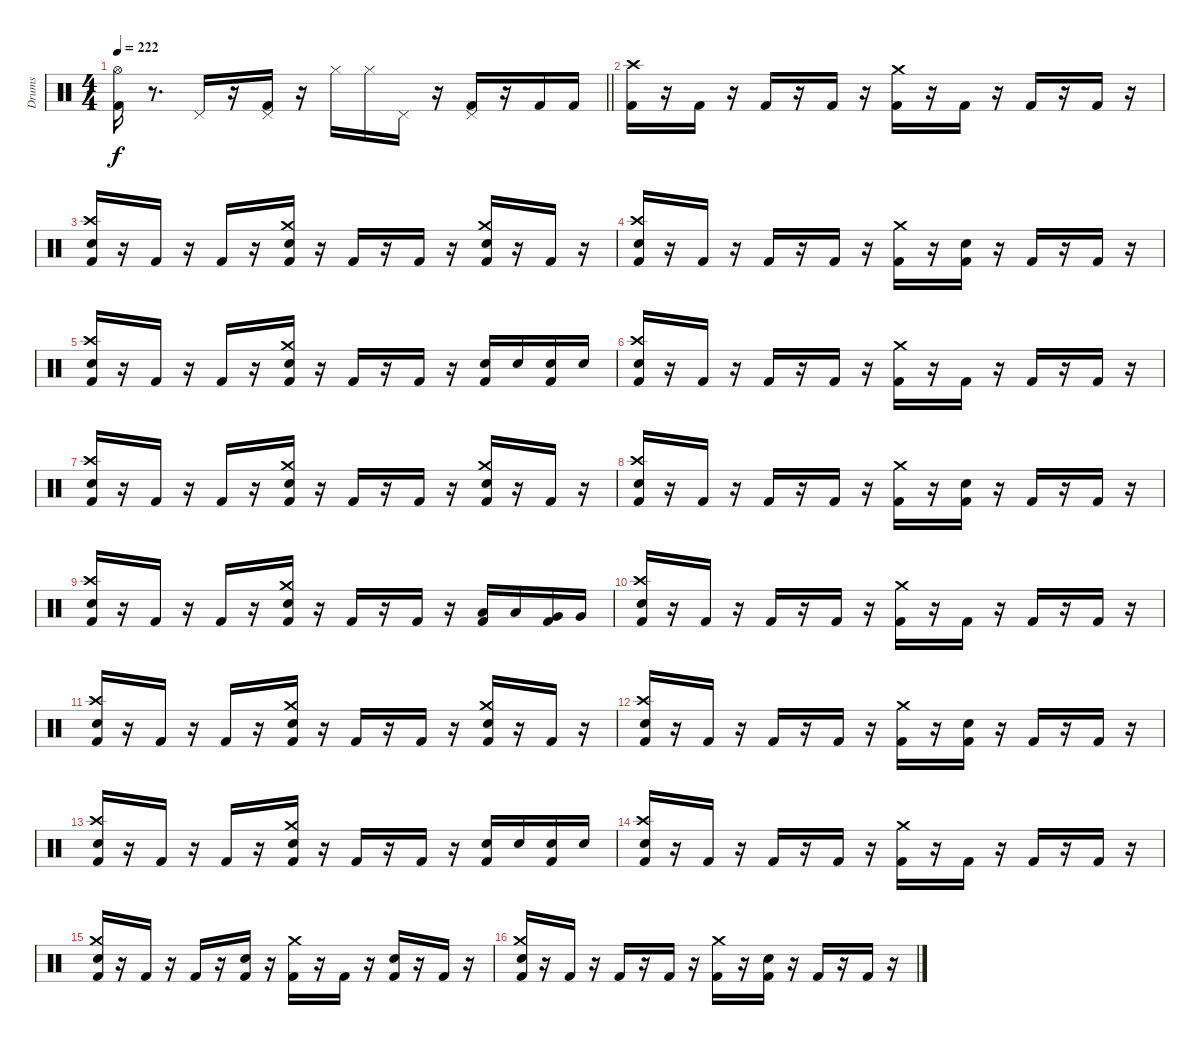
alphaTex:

\track ("Drums" "Drums") {instrument percussion}
\staff {score}
\articulation defaults
\ts (4 4)
\tempo 222
\clef neutral
\barLineRight lightlight
\ks c
("Kick (hit) 2" "Hi-Hat (open)").16{dy f} r.8{d} "Pedal Hi-Hat (hit)".16 r.16 ("Kick (hit) 2" "Pedal Hi-Hat (hit)").16 r.16 "Hi-Hat (closed)".16 "Hi-Hat (closed)".16 "Pedal Hi-Hat (hit)".16 r.16 ("Kick (hit) 2" "Pedal Hi-Hat (hit)").16 r.16 "Kick (hit) 2".16 "Kick (hit) 2".16 |
\section ("" " ")
("Kick (hit) 2" "Crash high (hit)").16 r.16 "Kick (hit) 2".16 r.16 "Kick (hit) 2".16 r.16 "Kick (hit) 2".16 r.16 ("Kick (hit) 2" "Crash medium (hit)").16 r.16 "Kick (hit) 2".16 r.16 "Kick (hit) 2".16 r.16 "Kick (hit) 2".16 r.16 |
("Kick (hit) 2" "Snare (hit) 2" "Crash high (hit)").16 r.16 "Kick (hit) 2".16 r.16 "Kick (hit) 2".16 r.16 ("Kick (hit) 2" "Snare (hit) 2" "Crash medium (hit)").16 r.16 "Kick (hit) 2".16 r.16 "Kick (hit) 2".16 r.16 ("Kick (hit) 2" "Snare (hit) 2" "Crash medium (hit)").16 r.16 "Kick (hit) 2".16 r.16 |
("Kick (hit) 2" "Snare (hit) 2" "Crash high (hit)").16 r.16 "Kick (hit) 2".16 r.16 "Kick (hit) 2".16 r.16 "Kick (hit) 2".16 r.16 ("Kick (hit) 2" "Crash medium (hit)").16 r.16 ("Kick (hit) 2" "Snare (hit) 2").16 r.16 "Kick (hit) 2".16 r.16 "Kick (hit) 2".16 r.16 |
("Kick (hit) 2" "Snare (hit) 2" "Crash high (hit)").16 r.16 "Kick (hit) 2".16 r.16 "Kick (hit) 2".16 r.16 ("Kick (hit) 2" "Snare (hit) 2" "Crash medium (hit)").16 r.16 "Kick (hit) 2".16 r.16 "Kick (hit) 2".16 r.16 ("Kick (hit) 2" "Snare (hit) 2").16 "Snare (hit) 2".16 ("Kick (hit) 2" "Snare (hit) 2").16 "Snare (hit) 2".16 |
("Kick (hit) 2" "Snare (hit) 2" "Crash high (hit)").16 r.16 "Kick (hit) 2".16 r.16 "Kick (hit) 2".16 r.16 "Kick (hit) 2".16 r.16 ("Kick (hit) 2" "Crash medium (hit)").16 r.16 "Kick (hit) 2".16 r.16 "Kick (hit) 2".16 r.16 "Kick (hit) 2".16 r.16 |
("Kick (hit) 2" "Snare (hit) 2" "Crash high (hit)").16 r.16 "Kick (hit) 2".16 r.16 "Kick (hit) 2".16 r.16 ("Kick (hit) 2" "Snare (hit) 2" "Crash medium (hit)").16 r.16 "Kick (hit) 2".16 r.16 "Kick (hit) 2".16 r.16 ("Kick (hit) 2" "Snare (hit) 2" "Crash medium (hit)").16 r.16 "Kick (hit) 2".16 r.16 |
("Kick (hit) 2" "Snare (hit) 2" "Crash high (hit)").16 r.16 "Kick (hit) 2".16 r.16 "Kick (hit) 2".16 r.16 "Kick (hit) 2".16 r.16 ("Kick (hit) 2" "Crash medium (hit)").16 r.16 ("Kick (hit) 2" "Snare (hit) 2").16 r.16 "Kick (hit) 2".16 r.16 "Kick (hit) 2".16 r.16 |
("Kick (hit) 2" "Snare (hit) 2" "Crash high (hit)").16 r.16 "Kick (hit) 2".16 r.16 "Kick (hit) 2".16 r.16 ("Kick (hit) 2" "Snare (hit) 2" "Crash medium (hit)").16 r.16 "Kick (hit) 2".16 r.16 "Kick (hit) 2".16 r.16 ("Kick (hit) 2" "Low Tom (hit)").16 "Low Tom (hit)".16 ("Kick (hit) 2" "Very Low Tom (hit)").16 "Very Low Tom (hit)".16 |
("Kick (hit) 2" "Snare (hit) 2" "Crash high (hit)").16 r.16 "Kick (hit) 2".16 r.16 "Kick (hit) 2".16 r.16 "Kick (hit) 2".16 r.16 ("Kick (hit) 2" "Crash medium (hit)").16 r.16 "Kick (hit) 2".16 r.16 "Kick (hit) 2".16 r.16 "Kick (hit) 2".16 r.16 |
("Kick (hit) 2" "Snare (hit) 2" "Crash high (hit)").16 r.16 "Kick (hit) 2".16 r.16 "Kick (hit) 2".16 r.16 ("Kick (hit) 2" "Snare (hit) 2" "Crash medium (hit)").16 r.16 "Kick (hit) 2".16 r.16 "Kick (hit) 2".16 r.16 ("Kick (hit) 2" "Snare (hit) 2" "Crash medium (hit)").16 r.16 "Kick (hit) 2".16 r.16 |
("Kick (hit) 2" "Snare (hit) 2" "Crash high (hit)").16 r.16 "Kick (hit) 2".16 r.16 "Kick (hit) 2".16 r.16 "Kick (hit) 2".16 r.16 ("Kick (hit) 2" "Crash medium (hit)").16 r.16 ("Kick (hit) 2" "Snare (hit) 2").16 r.16 "Kick (hit) 2".16 r.16 "Kick (hit) 2".16 r.16 |
("Kick (hit) 2" "Snare (hit) 2" "Crash high (hit)").16 r.16 "Kick (hit) 2".16 r.16 "Kick (hit) 2".16 r.16 ("Kick (hit) 2" "Snare (hit) 2" "Crash medium (hit)").16 r.16 "Kick (hit) 2".16 r.16 "Kick (hit) 2".16 r.16 ("Kick (hit) 2" "Snare (hit) 2").16 "Snare (hit) 2".16 ("Kick (hit) 2" "Snare (hit) 2").16 "Snare (hit) 2".16 |
("Kick (hit) 2" "Snare (hit) 2" "Crash high (hit)").16 r.16 "Kick (hit) 2".16 r.16 "Kick (hit) 2".16 r.16 "Kick (hit) 2".16 r.16 ("Kick (hit) 2" "Crash medium (hit)").16 r.16 "Kick (hit) 2".16 r.16 "Kick (hit) 2".16 r.16 "Kick (hit) 2".16 r.16 |
("Kick (hit) 2" "Snare (hit) 2" "Crash medium (hit)").16 r.16 "Kick (hit) 2".16 r.16 "Kick (hit) 2".16 r.16 ("Kick (hit) 2" "Snare (hit) 2").16 r.16 ("Kick (hit) 2" "Crash medium (hit)").16 r.16 "Kick (hit) 2".16 r.16 ("Kick (hit) 2" "Snare (hit) 2").16 r.16 "Kick (hit) 2".16 r.16 |
("Kick (hit) 2" "Snare (hit) 2" "Crash medium (hit)").16 r.16 "Kick (hit) 2".16 r.16 "Kick (hit) 2".16 r.16 "Kick (hit) 2".16 r.16 ("Kick (hit) 2" "Crash medium (hit)").16 r.16 ("Kick (hit) 2" "Snare (hit) 2").16 r.16 "Kick (hit) 2".16 r.16 "Kick (hit) 2".16 r.16
